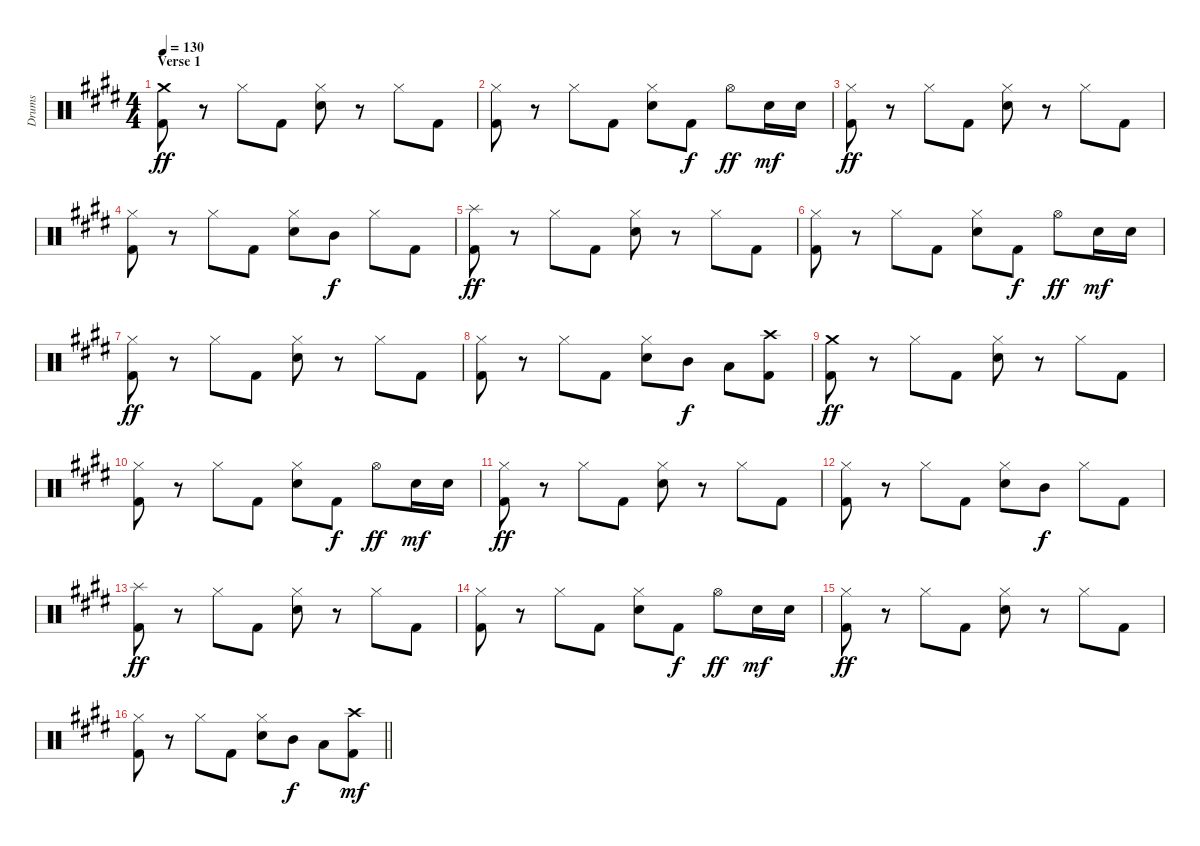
\track ("Drums" "Drums") {instrument percussion}
\staff {score}
\articulation defaults
\ts (4 4)
\section ("" "Verse 1")
\tempo 130
\clef neutral
\ks c#minor
("Crash medium (hit)" "Kick (hit) 2").8{dy ff} r.8 "Hi-Hat (closed)".8 "Kick (hit) 2".8 ("Hi-Hat (closed)" "Electric Snare (hit)").8 r.8 "Hi-Hat (closed)".8 "Kick (hit) 2".8 |
("Hi-Hat (closed)" "Kick (hit) 2").8 r.8 "Hi-Hat (closed)".8 "Kick (hit) 2".8 ("Hi-Hat (closed)" "Electric Snare (hit)").8 "Kick (hit) 2".8{dy f} "Hi-Hat (open)".8{dy ff} "Electric Snare (hit)".16{dy mf} "Electric Snare (hit)".16 |
("Hi-Hat (closed)" "Kick (hit) 2").8{dy ff} r.8 "Hi-Hat (closed)".8 "Kick (hit) 2".8 ("Hi-Hat (closed)" "Electric Snare (hit)").8 r.8 "Hi-Hat (closed)".8 "Kick (hit) 2".8 |
("Hi-Hat (closed)" "Kick (hit) 2").8 r.8 "Hi-Hat (closed)".8 "Kick (hit) 2".8 ("Hi-Hat (closed)" "Electric Snare (hit)").8 "Mid Tom (hit)".8{dy f} "Hi-Hat (closed)".8 "Kick (hit) 2".8 |
("Splash (hit)" "Kick (hit) 2").8{dy ff} r.8 "Hi-Hat (closed)".8 "Kick (hit) 2".8 ("Hi-Hat (closed)" "Electric Snare (hit)").8 r.8 "Hi-Hat (closed)".8 "Kick (hit) 2".8 |
("Hi-Hat (closed)" "Kick (hit) 2").8 r.8 "Hi-Hat (closed)".8 "Kick (hit) 2".8 ("Hi-Hat (closed)" "Electric Snare (hit)").8 "Kick (hit) 2".8{dy f} "Hi-Hat (open)".8{dy ff} "Electric Snare (hit)".16{dy mf} "Electric Snare (hit)".16 |
("Hi-Hat (closed)" "Kick (hit) 2").8{dy ff} r.8 "Hi-Hat (closed)".8 "Kick (hit) 2".8 ("Hi-Hat (closed)" "Electric Snare (hit)").8 r.8 "Hi-Hat (closed)".8 "Kick (hit) 2".8 |
("Hi-Hat (closed)" "Kick (hit) 2").8 r.8 "Hi-Hat (closed)".8 "Kick (hit) 2".8 ("Hi-Hat (closed)" "Electric Snare (hit)").8 "Mid Tom (hit)".8{dy f} "Low Tom (hit)".8 ("Crash high (hit)" "Kick (hit) 2").8 |
("Crash medium (hit)" "Kick (hit) 2").8{dy ff} r.8 "Hi-Hat (closed)".8 "Kick (hit) 2".8 ("Hi-Hat (closed)" "Electric Snare (hit)").8 r.8 "Hi-Hat (closed)".8 "Kick (hit) 2".8 |
("Hi-Hat (closed)" "Kick (hit) 2").8 r.8 "Hi-Hat (closed)".8 "Kick (hit) 2".8 ("Hi-Hat (closed)" "Electric Snare (hit)").8 "Kick (hit) 2".8{dy f} "Hi-Hat (open)".8{dy ff} "Electric Snare (hit)".16{dy mf} "Electric Snare (hit)".16 |
("Hi-Hat (closed)" "Kick (hit) 2").8{dy ff} r.8 "Hi-Hat (closed)".8 "Kick (hit) 2".8 ("Hi-Hat (closed)" "Electric Snare (hit)").8 r.8 "Hi-Hat (closed)".8 "Kick (hit) 2".8 |
("Hi-Hat (closed)" "Kick (hit) 2").8 r.8 "Hi-Hat (closed)".8 "Kick (hit) 2".8 ("Hi-Hat (closed)" "Electric Snare (hit)").8 "Mid Tom (hit)".8{dy f} "Hi-Hat (closed)".8 "Kick (hit) 2".8 |
("Splash (hit)" "Kick (hit) 2").8{dy ff} r.8 "Hi-Hat (closed)".8 "Kick (hit) 2".8 ("Hi-Hat (closed)" "Electric Snare (hit)").8 r.8 "Hi-Hat (closed)".8 "Kick (hit) 2".8 |
("Hi-Hat (closed)" "Kick (hit) 2").8 r.8 "Hi-Hat (closed)".8 "Kick (hit) 2".8 ("Hi-Hat (closed)" "Electric Snare (hit)").8 "Kick (hit) 2".8{dy f} "Hi-Hat (open)".8{dy ff} "Electric Snare (hit)".16{dy mf} "Electric Snare (hit)".16 |
("Hi-Hat (closed)" "Kick (hit) 2").8{dy ff} r.8 "Hi-Hat (closed)".8 "Kick (hit) 2".8 ("Hi-Hat (closed)" "Electric Snare (hit)").8 r.8 "Hi-Hat (closed)".8 "Kick (hit) 2".8 |
\barLineRight lightlight
("Hi-Hat (closed)" "Kick (hit) 2").8 r.8 "Hi-Hat (closed)".8 "Kick (hit) 2".8 ("Hi-Hat (closed)" "Electric Snare (hit)").8 "Mid Tom (hit)".8{dy f} "Low Tom (hit)".8 ("Crash high (hit)" "Kick (hit) 2").8{dy mf}
